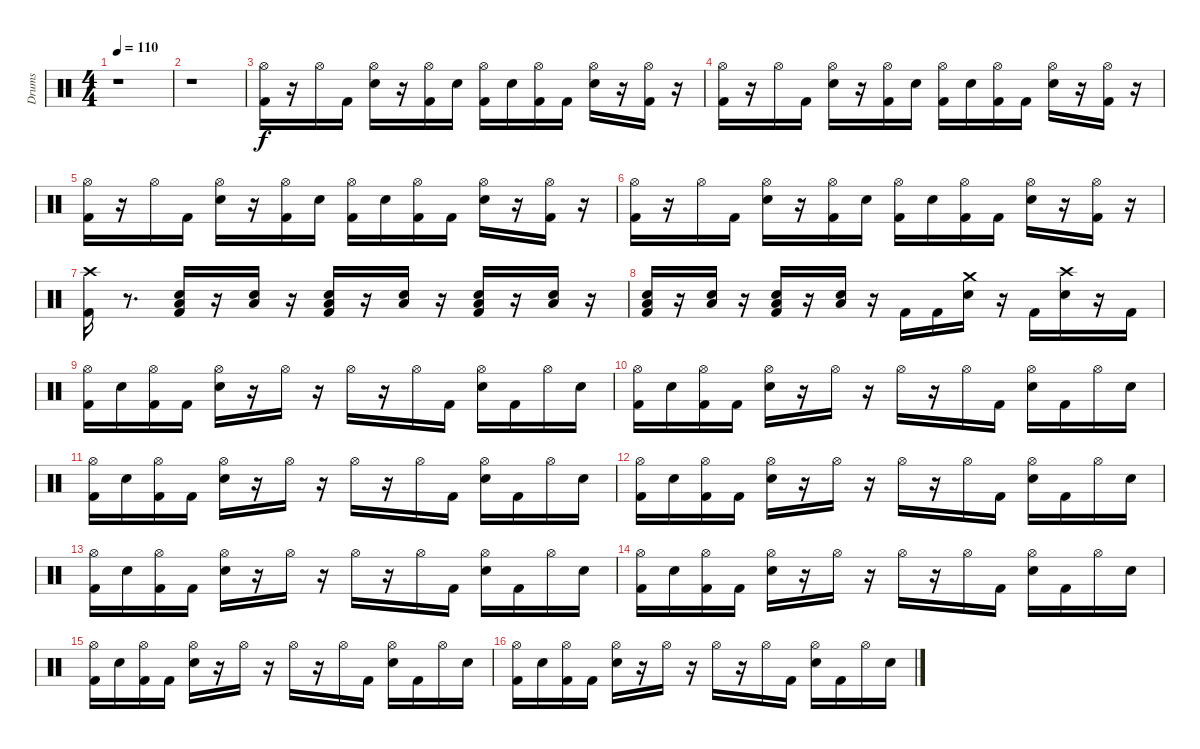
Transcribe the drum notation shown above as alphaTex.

\track ("Drums" "Drums") {instrument percussion}
\staff {score}
\articulation defaults
\ts (4 4)
\tempo 110
\clef neutral
\ks c
r.1{dy f} |
r.1 |
("Hi-Hat (open)" "Kick (hit) 2").16 r.16 "Hi-Hat (open)".16 "Kick (hit) 2".16 ("Hi-Hat (open)" "Electric Snare (hit)").16 r.16 ("Hi-Hat (open)" "Kick (hit) 2").16 "Electric Snare (hit)".16 ("Hi-Hat (open)" "Kick (hit) 2").16 "Electric Snare (hit)".16 ("Hi-Hat (open)" "Kick (hit) 2").16 "Kick (hit) 2".16 ("Hi-Hat (open)" "Electric Snare (hit)").16 r.16 ("Hi-Hat (open)" "Kick (hit) 2").16 r.16 |
("Kick (hit) 2" "Hi-Hat (open)").16 r.16 "Hi-Hat (open)".16 "Kick (hit) 2".16 ("Hi-Hat (open)" "Electric Snare (hit)").16 r.16 ("Hi-Hat (open)" "Kick (hit) 2").16 "Electric Snare (hit)".16 ("Hi-Hat (open)" "Kick (hit) 2").16 "Electric Snare (hit)".16 ("Hi-Hat (open)" "Kick (hit) 2").16 "Kick (hit) 2".16 ("Hi-Hat (open)" "Electric Snare (hit)").16 r.16 ("Hi-Hat (open)" "Kick (hit) 2").16 r.16 |
("Kick (hit) 2" "Hi-Hat (open)").16 r.16 "Hi-Hat (open)".16 "Kick (hit) 2".16 ("Hi-Hat (open)" "Electric Snare (hit)").16 r.16 ("Hi-Hat (open)" "Kick (hit) 2").16 "Electric Snare (hit)".16 ("Hi-Hat (open)" "Kick (hit) 2").16 "Electric Snare (hit)".16 ("Hi-Hat (open)" "Kick (hit) 2").16 "Kick (hit) 2".16 ("Hi-Hat (open)" "Electric Snare (hit)").16 r.16 ("Hi-Hat (open)" "Kick (hit) 2").16 r.16 |
("Kick (hit) 2" "Hi-Hat (open)").16 r.16 "Hi-Hat (open)".16 "Kick (hit) 2".16 ("Hi-Hat (open)" "Electric Snare (hit)").16 r.16 ("Hi-Hat (open)" "Kick (hit) 2").16 "Electric Snare (hit)".16 ("Hi-Hat (open)" "Kick (hit) 2").16 "Electric Snare (hit)".16 ("Hi-Hat (open)" "Kick (hit) 2").16 "Kick (hit) 2".16 ("Hi-Hat (open)" "Electric Snare (hit)").16 r.16 ("Hi-Hat (open)" "Kick (hit) 2").16 r.16 |
("Kick (hit) 2" "Crash high (hit)").16 r.8{d} ("Low Floor Tom (hit)" "Kick (hit) 2" "Electric Snare (hit)").16 r.16 ("Low Floor Tom (hit)" "Electric Snare (hit)").16 r.16 ("Kick (hit) 2" "Low Floor Tom (hit)" "Electric Snare (hit)").16 r.16 ("Low Floor Tom (hit)" "Electric Snare (hit)").16 r.16 ("Kick (hit) 2" "Low Floor Tom (hit)" "Electric Snare (hit)").16 r.16 ("Low Floor Tom (hit)" "Electric Snare (hit)").16 r.16 |
("Kick (hit) 2" "Low Floor Tom (hit)" "Electric Snare (hit)").16 r.16 ("Low Floor Tom (hit)" "Electric Snare (hit)").16 r.16 ("Kick (hit) 2" "Low Floor Tom (hit)" "Electric Snare (hit)").16 r.16 ("Low Floor Tom (hit)" "Electric Snare (hit)").16 r.16 "Kick (hit) 2".16 "Kick (hit) 2".16 ("Electric Snare (hit)" "Crash medium (hit)").16 r.16 "Kick (hit) 2".16 ("Electric Snare (hit)" "Crash high (hit)").16 r.16 "Kick (hit) 2".16 |
("Kick (hit) 2" "Hi-Hat (open)").16 "Electric Snare (hit)".16 ("Kick (hit) 2" "Hi-Hat (open)").16 "Kick (hit) 2".16 ("Electric Snare (hit)" "Hi-Hat (open)").16 r.16 "Hi-Hat (open)".16 r.16 "Hi-Hat (open)".16 r.16 "Hi-Hat (open)".16 "Kick (hit) 2".16 ("Electric Snare (hit)" "Hi-Hat (open)").16 "Kick (hit) 2".16 "Hi-Hat (open)".16 "Electric Snare (hit)".16 |
("Kick (hit) 2" "Hi-Hat (open)").16 "Electric Snare (hit)".16 ("Kick (hit) 2" "Hi-Hat (open)").16 "Kick (hit) 2".16 ("Electric Snare (hit)" "Hi-Hat (open)").16 r.16 "Hi-Hat (open)".16 r.16 "Hi-Hat (open)".16 r.16 "Hi-Hat (open)".16 "Kick (hit) 2".16 ("Electric Snare (hit)" "Hi-Hat (open)").16 "Kick (hit) 2".16 "Hi-Hat (open)".16 "Electric Snare (hit)".16 |
("Kick (hit) 2" "Hi-Hat (open)").16 "Electric Snare (hit)".16 ("Kick (hit) 2" "Hi-Hat (open)").16 "Kick (hit) 2".16 ("Electric Snare (hit)" "Hi-Hat (open)").16 r.16 "Hi-Hat (open)".16 r.16 "Hi-Hat (open)".16 r.16 "Hi-Hat (open)".16 "Kick (hit) 2".16 ("Electric Snare (hit)" "Hi-Hat (open)").16 "Kick (hit) 2".16 "Hi-Hat (open)".16 "Electric Snare (hit)".16 |
("Kick (hit) 2" "Hi-Hat (open)").16 "Electric Snare (hit)".16 ("Kick (hit) 2" "Hi-Hat (open)").16 "Kick (hit) 2".16 ("Electric Snare (hit)" "Hi-Hat (open)").16 r.16 "Hi-Hat (open)".16 r.16 "Hi-Hat (open)".16 r.16 "Hi-Hat (open)".16 "Kick (hit) 2".16 ("Electric Snare (hit)" "Hi-Hat (open)").16 "Kick (hit) 2".16 "Hi-Hat (open)".16 "Electric Snare (hit)".16 |
("Kick (hit) 2" "Hi-Hat (open)").16 "Electric Snare (hit)".16 ("Kick (hit) 2" "Hi-Hat (open)").16 "Kick (hit) 2".16 ("Electric Snare (hit)" "Hi-Hat (open)").16 r.16 "Hi-Hat (open)".16 r.16 "Hi-Hat (open)".16 r.16 "Hi-Hat (open)".16 "Kick (hit) 2".16 ("Electric Snare (hit)" "Hi-Hat (open)").16 "Kick (hit) 2".16 "Hi-Hat (open)".16 "Electric Snare (hit)".16 |
("Kick (hit) 2" "Hi-Hat (open)").16 "Electric Snare (hit)".16 ("Kick (hit) 2" "Hi-Hat (open)").16 "Kick (hit) 2".16 ("Electric Snare (hit)" "Hi-Hat (open)").16 r.16 "Hi-Hat (open)".16 r.16 "Hi-Hat (open)".16 r.16 "Hi-Hat (open)".16 "Kick (hit) 2".16 ("Electric Snare (hit)" "Hi-Hat (open)").16 "Kick (hit) 2".16 "Hi-Hat (open)".16 "Electric Snare (hit)".16 |
("Kick (hit) 2" "Hi-Hat (open)").16 "Electric Snare (hit)".16 ("Kick (hit) 2" "Hi-Hat (open)").16 "Kick (hit) 2".16 ("Electric Snare (hit)" "Hi-Hat (open)").16 r.16 "Hi-Hat (open)".16 r.16 "Hi-Hat (open)".16 r.16 "Hi-Hat (open)".16 "Kick (hit) 2".16 ("Electric Snare (hit)" "Hi-Hat (open)").16 "Kick (hit) 2".16 "Hi-Hat (open)".16 "Electric Snare (hit)".16 |
("Kick (hit) 2" "Hi-Hat (open)").16 "Electric Snare (hit)".16 ("Kick (hit) 2" "Hi-Hat (open)").16 "Kick (hit) 2".16 ("Electric Snare (hit)" "Hi-Hat (open)").16 r.16 "Hi-Hat (open)".16 r.16 "Hi-Hat (open)".16 r.16 "Hi-Hat (open)".16 "Kick (hit) 2".16 ("Electric Snare (hit)" "Hi-Hat (open)").16 "Kick (hit) 2".16 "Hi-Hat (open)".16 "Electric Snare (hit)".16
